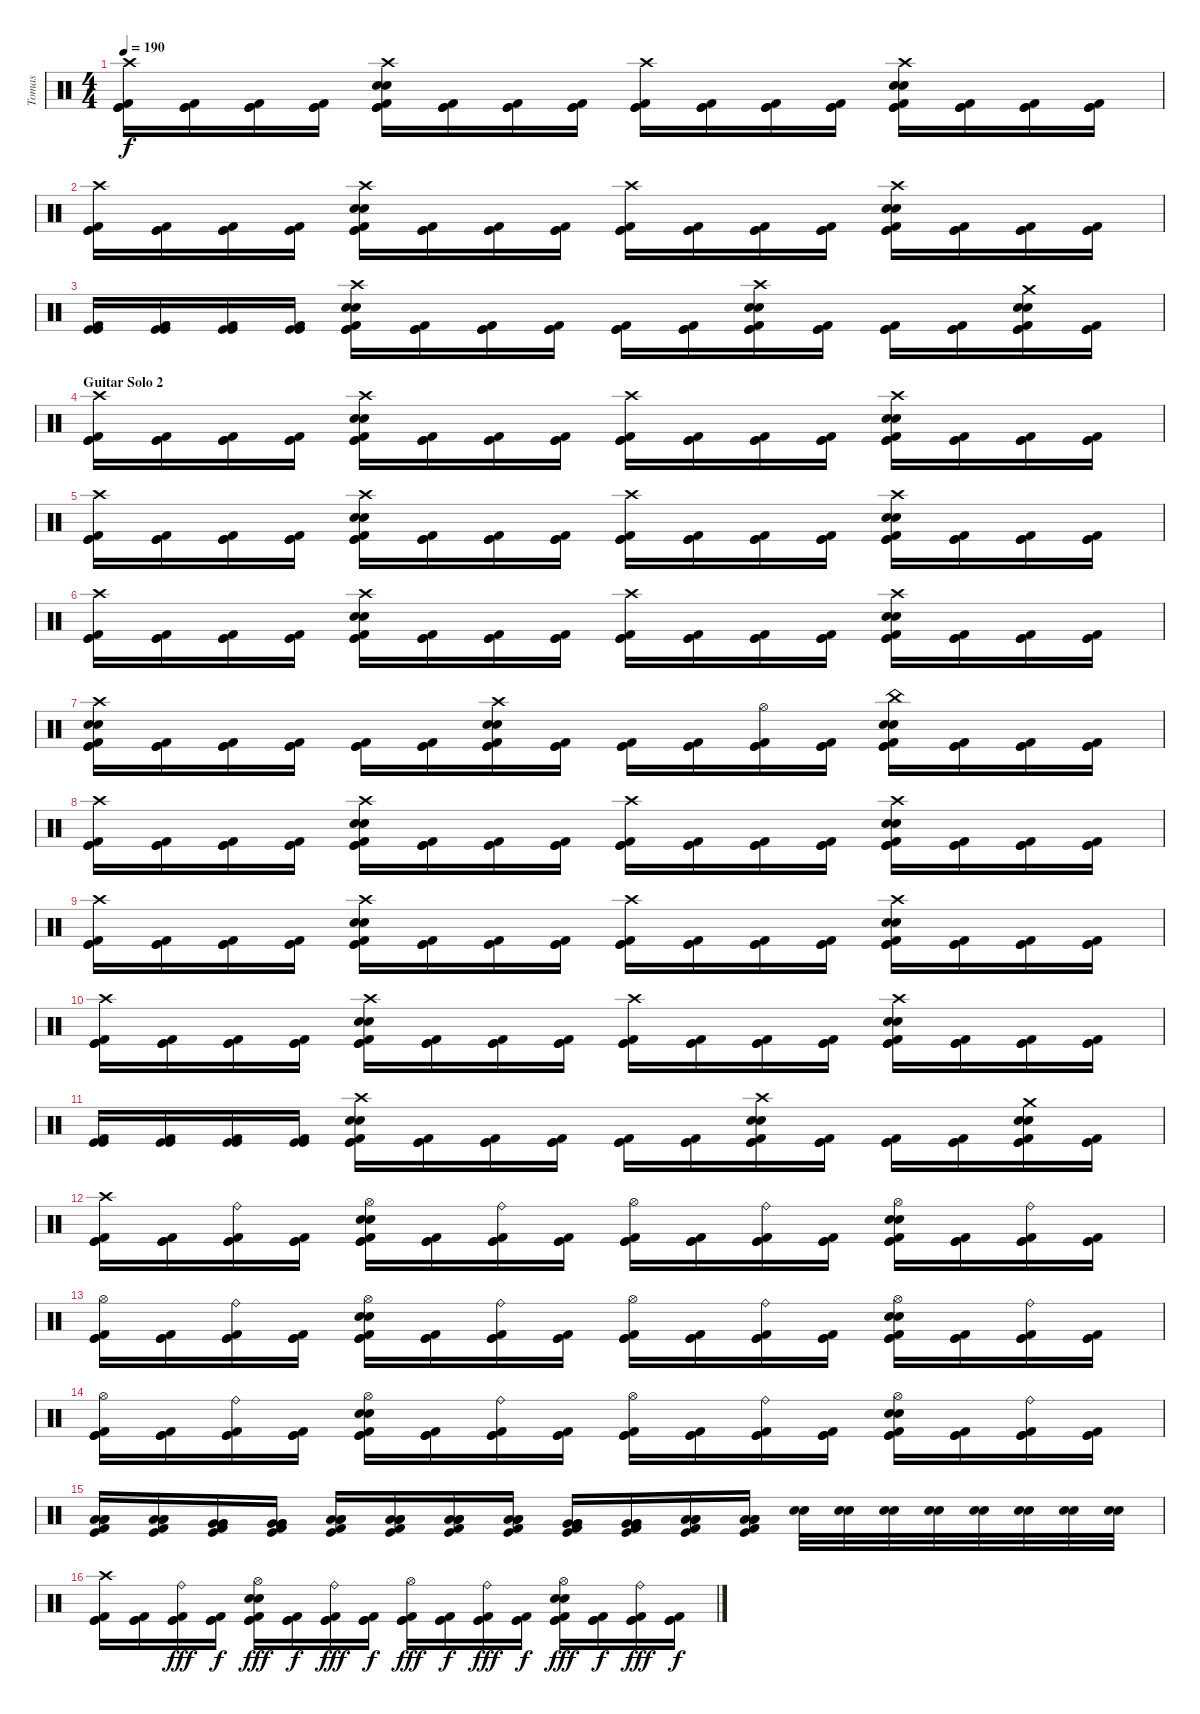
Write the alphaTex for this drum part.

\track ("Tomas" "Tomas") {instrument percussion}
\staff {score}
\articulation defaults
\ts (4 4)
\tempo 190
\clef neutral
\ks c
("Crash high (hit)" "Kick (hit)" "Kick (hit)" "Kick (hit) 2").16{dy f} ("Kick (hit)" "Kick (hit)" "Kick (hit) 2").16 ("Kick (hit)" "Kick (hit)" "Kick (hit) 2").16 ("Kick (hit)" "Kick (hit)" "Kick (hit) 2").16 ("Crash high (hit)" "Kick (hit)" "Electric Snare (hit)" "Electric Snare (hit)" "Kick (hit)" "Kick (hit) 2").16 ("Kick (hit)" "Kick (hit)" "Kick (hit) 2").16 ("Kick (hit)" "Kick (hit)" "Kick (hit) 2").16 ("Kick (hit)" "Kick (hit)" "Kick (hit) 2").16 ("Crash high (hit)" "Kick (hit)" "Kick (hit)" "Kick (hit) 2").16 ("Kick (hit)" "Kick (hit)" "Kick (hit) 2").16 ("Kick (hit)" "Kick (hit)" "Kick (hit) 2").16 ("Kick (hit)" "Kick (hit)" "Kick (hit) 2").16 ("Crash high (hit)" "Kick (hit)" "Electric Snare (hit)" "Electric Snare (hit)" "Kick (hit)" "Kick (hit) 2").16 ("Kick (hit)" "Kick (hit)" "Kick (hit) 2").16 ("Kick (hit)" "Kick (hit)" "Kick (hit) 2").16 ("Kick (hit)" "Kick (hit)" "Kick (hit) 2").16 |
("Crash high (hit)" "Kick (hit)" "Kick (hit)" "Kick (hit) 2").16 ("Kick (hit)" "Kick (hit)" "Kick (hit) 2").16 ("Kick (hit)" "Kick (hit)" "Kick (hit) 2").16 ("Kick (hit)" "Kick (hit)" "Kick (hit) 2").16 ("Crash high (hit)" "Kick (hit)" "Electric Snare (hit)" "Electric Snare (hit)" "Kick (hit)" "Kick (hit) 2").16 ("Kick (hit)" "Kick (hit)" "Kick (hit) 2").16 ("Kick (hit)" "Kick (hit)" "Kick (hit) 2").16 ("Kick (hit)" "Kick (hit)" "Kick (hit) 2").16 ("Crash high (hit)" "Kick (hit)" "Kick (hit)" "Kick (hit) 2").16 ("Kick (hit)" "Kick (hit)" "Kick (hit) 2").16 ("Kick (hit)" "Kick (hit)" "Kick (hit) 2").16 ("Kick (hit)" "Kick (hit)" "Kick (hit) 2").16 ("Crash high (hit)" "Kick (hit)" "Electric Snare (hit)" "Electric Snare (hit)" "Kick (hit)" "Kick (hit) 2").16 ("Kick (hit)" "Kick (hit)" "Kick (hit) 2").16 ("Kick (hit)" "Kick (hit)" "Kick (hit) 2").16 ("Kick (hit)" "Kick (hit)" "Kick (hit) 2").16 |
("Kick (hit)" "Kick (hit)" "Kick (hit) 2").16 ("Kick (hit)" "Kick (hit)" "Kick (hit) 2").16 ("Kick (hit)" "Kick (hit)" "Kick (hit) 2").16 ("Kick (hit)" "Kick (hit)" "Kick (hit) 2").16 ("Crash high (hit)" "Kick (hit)" "Electric Snare (hit)" "Electric Snare (hit)" "Kick (hit)" "Kick (hit) 2").16 ("Kick (hit)" "Kick (hit)" "Kick (hit) 2").16 ("Kick (hit)" "Kick (hit)" "Kick (hit) 2").16 ("Kick (hit)" "Kick (hit)" "Kick (hit) 2").16 ("Kick (hit)" "Kick (hit)" "Kick (hit) 2").16 ("Kick (hit)" "Kick (hit)" "Kick (hit) 2").16 ("Crash high (hit)" "Kick (hit)" "Electric Snare (hit)" "Electric Snare (hit)" "Kick (hit)" "Kick (hit) 2").16 ("Kick (hit)" "Kick (hit)" "Kick (hit) 2").16 ("Kick (hit)" "Kick (hit)" "Kick (hit) 2").16 ("Kick (hit)" "Kick (hit)" "Kick (hit) 2").16 ("Crash medium (hit)" "Kick (hit)" "Electric Snare (hit)" "Electric Snare (hit)" "Kick (hit)" "Kick (hit) 2").16 ("Kick (hit)" "Kick (hit)" "Kick (hit) 2").16 |
\section ("" "Guitar Solo 2")
("Crash high (hit)" "Kick (hit)" "Kick (hit)" "Kick (hit) 2").16 ("Kick (hit)" "Kick (hit)" "Kick (hit) 2").16 ("Kick (hit)" "Kick (hit)" "Kick (hit) 2").16 ("Kick (hit)" "Kick (hit)" "Kick (hit) 2").16 ("Crash high (hit)" "Kick (hit)" "Electric Snare (hit)" "Electric Snare (hit)" "Kick (hit)" "Kick (hit) 2").16 ("Kick (hit)" "Kick (hit)" "Kick (hit) 2").16 ("Kick (hit)" "Kick (hit)" "Kick (hit) 2").16 ("Kick (hit)" "Kick (hit)" "Kick (hit) 2").16 ("Crash high (hit)" "Kick (hit)" "Kick (hit)" "Kick (hit) 2").16 ("Kick (hit)" "Kick (hit)" "Kick (hit) 2").16 ("Kick (hit)" "Kick (hit)" "Kick (hit) 2").16 ("Kick (hit)" "Kick (hit)" "Kick (hit) 2").16 ("Crash high (hit)" "Kick (hit)" "Electric Snare (hit)" "Electric Snare (hit)" "Kick (hit)" "Kick (hit) 2").16 ("Kick (hit)" "Kick (hit)" "Kick (hit) 2").16 ("Kick (hit)" "Kick (hit)" "Kick (hit) 2").16 ("Kick (hit)" "Kick (hit)" "Kick (hit) 2").16 |
("Crash high (hit)" "Kick (hit)" "Kick (hit)" "Kick (hit) 2").16 ("Kick (hit)" "Kick (hit)" "Kick (hit) 2").16 ("Kick (hit)" "Kick (hit)" "Kick (hit) 2").16 ("Kick (hit)" "Kick (hit)" "Kick (hit) 2").16 ("Crash high (hit)" "Kick (hit)" "Electric Snare (hit)" "Electric Snare (hit)" "Kick (hit)" "Kick (hit) 2").16 ("Kick (hit)" "Kick (hit)" "Kick (hit) 2").16 ("Kick (hit)" "Kick (hit)" "Kick (hit) 2").16 ("Kick (hit)" "Kick (hit)" "Kick (hit) 2").16 ("Crash high (hit)" "Kick (hit)" "Kick (hit)" "Kick (hit) 2").16 ("Kick (hit)" "Kick (hit)" "Kick (hit) 2").16 ("Kick (hit)" "Kick (hit)" "Kick (hit) 2").16 ("Kick (hit)" "Kick (hit)" "Kick (hit) 2").16 ("Crash high (hit)" "Kick (hit)" "Electric Snare (hit)" "Electric Snare (hit)" "Kick (hit)" "Kick (hit) 2").16 ("Kick (hit)" "Kick (hit)" "Kick (hit) 2").16 ("Kick (hit)" "Kick (hit)" "Kick (hit) 2").16 ("Kick (hit)" "Kick (hit)" "Kick (hit) 2").16 |
("Crash high (hit)" "Kick (hit)" "Kick (hit)" "Kick (hit) 2").16 ("Kick (hit)" "Kick (hit)" "Kick (hit) 2").16 ("Kick (hit)" "Kick (hit)" "Kick (hit) 2").16 ("Kick (hit)" "Kick (hit)" "Kick (hit) 2").16 ("Crash high (hit)" "Kick (hit)" "Electric Snare (hit)" "Electric Snare (hit)" "Kick (hit)" "Kick (hit) 2").16 ("Kick (hit)" "Kick (hit)" "Kick (hit) 2").16 ("Kick (hit)" "Kick (hit)" "Kick (hit) 2").16 ("Kick (hit)" "Kick (hit)" "Kick (hit) 2").16 ("Crash high (hit)" "Kick (hit)" "Kick (hit)" "Kick (hit) 2").16 ("Kick (hit)" "Kick (hit)" "Kick (hit) 2").16 ("Kick (hit)" "Kick (hit)" "Kick (hit) 2").16 ("Kick (hit)" "Kick (hit)" "Kick (hit) 2").16 ("Crash high (hit)" "Kick (hit)" "Electric Snare (hit)" "Electric Snare (hit)" "Kick (hit)" "Kick (hit) 2").16 ("Kick (hit)" "Kick (hit)" "Kick (hit) 2").16 ("Kick (hit)" "Kick (hit)" "Kick (hit) 2").16 ("Kick (hit)" "Kick (hit)" "Kick (hit) 2").16 |
("Crash high (hit)" "Kick (hit)" "Electric Snare (hit)" "Electric Snare (hit)" "Kick (hit)" "Kick (hit) 2").16 ("Kick (hit)" "Kick (hit)" "Kick (hit) 2").16 ("Kick (hit)" "Kick (hit)" "Kick (hit) 2").16 ("Kick (hit)" "Kick (hit)" "Kick (hit) 2").16 ("Kick (hit)" "Kick (hit)" "Kick (hit) 2").16 ("Kick (hit)" "Kick (hit)" "Kick (hit) 2").16 ("Crash high (hit)" "Kick (hit)" "Electric Snare (hit)" "Electric Snare (hit)" "Kick (hit)" "Kick (hit) 2").16 ("Kick (hit)" "Kick (hit)" "Kick (hit) 2").16 ("Kick (hit)" "Kick (hit)" "Kick (hit) 2").16 ("Kick (hit)" "Kick (hit)" "Kick (hit) 2").16 ("Hi-Hat (open)" "Kick (hit)" "Kick (hit)" "Kick (hit) 2").16 ("Kick (hit)" "Kick (hit)" "Kick (hit) 2").16 ("China (hit)" "Kick (hit)" "Electric Snare (hit)" "Electric Snare (hit)" "Kick (hit)" "Kick (hit) 2").16 ("Kick (hit)" "Kick (hit)" "Kick (hit) 2").16 ("Kick (hit)" "Kick (hit)" "Kick (hit) 2").16 ("Kick (hit)" "Kick (hit)" "Kick (hit) 2").16 |
("Crash high (hit)" "Kick (hit)" "Kick (hit)" "Kick (hit) 2").16 ("Kick (hit)" "Kick (hit)" "Kick (hit) 2").16 ("Kick (hit)" "Kick (hit)" "Kick (hit) 2").16 ("Kick (hit)" "Kick (hit)" "Kick (hit) 2").16 ("Crash high (hit)" "Kick (hit)" "Electric Snare (hit)" "Electric Snare (hit)" "Kick (hit)" "Kick (hit) 2").16 ("Kick (hit)" "Kick (hit)" "Kick (hit) 2").16 ("Kick (hit)" "Kick (hit)" "Kick (hit) 2").16 ("Kick (hit)" "Kick (hit)" "Kick (hit) 2").16 ("Crash high (hit)" "Kick (hit)" "Kick (hit)" "Kick (hit) 2").16 ("Kick (hit)" "Kick (hit)" "Kick (hit) 2").16 ("Kick (hit)" "Kick (hit)" "Kick (hit) 2").16 ("Kick (hit)" "Kick (hit)" "Kick (hit) 2").16 ("Crash high (hit)" "Kick (hit)" "Electric Snare (hit)" "Electric Snare (hit)" "Kick (hit)" "Kick (hit) 2").16 ("Kick (hit)" "Kick (hit)" "Kick (hit) 2").16 ("Kick (hit)" "Kick (hit)" "Kick (hit) 2").16 ("Kick (hit)" "Kick (hit)" "Kick (hit) 2").16 |
("Crash high (hit)" "Kick (hit)" "Kick (hit)" "Kick (hit) 2").16 ("Kick (hit)" "Kick (hit)" "Kick (hit) 2").16 ("Kick (hit)" "Kick (hit)" "Kick (hit) 2").16 ("Kick (hit)" "Kick (hit)" "Kick (hit) 2").16 ("Crash high (hit)" "Kick (hit)" "Electric Snare (hit)" "Electric Snare (hit)" "Kick (hit)" "Kick (hit) 2").16 ("Kick (hit)" "Kick (hit)" "Kick (hit) 2").16 ("Kick (hit)" "Kick (hit)" "Kick (hit) 2").16 ("Kick (hit)" "Kick (hit)" "Kick (hit) 2").16 ("Crash high (hit)" "Kick (hit)" "Kick (hit)" "Kick (hit) 2").16 ("Kick (hit)" "Kick (hit)" "Kick (hit) 2").16 ("Kick (hit)" "Kick (hit)" "Kick (hit) 2").16 ("Kick (hit)" "Kick (hit)" "Kick (hit) 2").16 ("Crash high (hit)" "Kick (hit)" "Electric Snare (hit)" "Electric Snare (hit)" "Kick (hit)" "Kick (hit) 2").16 ("Kick (hit)" "Kick (hit)" "Kick (hit) 2").16 ("Kick (hit)" "Kick (hit)" "Kick (hit) 2").16 ("Kick (hit)" "Kick (hit)" "Kick (hit) 2").16 |
("Crash high (hit)" "Kick (hit)" "Kick (hit)" "Kick (hit) 2").16 ("Kick (hit)" "Kick (hit)" "Kick (hit) 2").16 ("Kick (hit)" "Kick (hit)" "Kick (hit) 2").16 ("Kick (hit)" "Kick (hit)" "Kick (hit) 2").16 ("Crash high (hit)" "Kick (hit)" "Electric Snare (hit)" "Electric Snare (hit)" "Kick (hit)" "Kick (hit) 2").16 ("Kick (hit)" "Kick (hit)" "Kick (hit) 2").16 ("Kick (hit)" "Kick (hit)" "Kick (hit) 2").16 ("Kick (hit)" "Kick (hit)" "Kick (hit) 2").16 ("Crash high (hit)" "Kick (hit)" "Kick (hit)" "Kick (hit) 2").16 ("Kick (hit)" "Kick (hit)" "Kick (hit) 2").16 ("Kick (hit)" "Kick (hit)" "Kick (hit) 2").16 ("Kick (hit)" "Kick (hit)" "Kick (hit) 2").16 ("Crash high (hit)" "Kick (hit)" "Electric Snare (hit)" "Electric Snare (hit)" "Kick (hit)" "Kick (hit) 2").16 ("Kick (hit)" "Kick (hit)" "Kick (hit) 2").16 ("Kick (hit)" "Kick (hit)" "Kick (hit) 2").16 ("Kick (hit)" "Kick (hit)" "Kick (hit) 2").16 |
("Kick (hit)" "Kick (hit)" "Kick (hit) 2").16 ("Kick (hit)" "Kick (hit)" "Kick (hit) 2").16 ("Kick (hit)" "Kick (hit)" "Kick (hit) 2").16 ("Kick (hit)" "Kick (hit)" "Kick (hit) 2").16 ("Crash high (hit)" "Kick (hit)" "Electric Snare (hit)" "Electric Snare (hit)" "Kick (hit)" "Kick (hit) 2").16 ("Kick (hit)" "Kick (hit)" "Kick (hit) 2").16 ("Kick (hit)" "Kick (hit)" "Kick (hit) 2").16 ("Kick (hit)" "Kick (hit)" "Kick (hit) 2").16 ("Kick (hit)" "Kick (hit)" "Kick (hit) 2").16 ("Kick (hit)" "Kick (hit)" "Kick (hit) 2").16 ("Crash high (hit)" "Kick (hit)" "Electric Snare (hit)" "Electric Snare (hit)" "Kick (hit)" "Kick (hit) 2").16 ("Kick (hit)" "Kick (hit)" "Kick (hit) 2").16 ("Kick (hit)" "Kick (hit)" "Kick (hit) 2").16 ("Kick (hit)" "Kick (hit)" "Kick (hit) 2").16 ("Crash medium (hit)" "Kick (hit)" "Electric Snare (hit)" "Electric Snare (hit)" "Kick (hit)" "Kick (hit) 2").16 ("Kick (hit)" "Kick (hit)" "Kick (hit) 2").16 |
("Crash high (hit)" "Kick (hit)" "Kick (hit)" "Kick (hit) 2").16 ("Kick (hit)" "Kick (hit)" "Kick (hit) 2").16 ("Ride (bell)" "Kick (hit)" "Kick (hit)" "Kick (hit) 2").16 ("Kick (hit)" "Kick (hit)" "Kick (hit) 2").16 ("Hi-Hat (open)" "Kick (hit)" "Electric Snare (hit)" "Electric Snare (hit)" "Kick (hit)" "Kick (hit) 2").16 ("Kick (hit)" "Kick (hit)" "Kick (hit) 2").16 ("Ride (bell)" "Kick (hit)" "Kick (hit)" "Kick (hit) 2").16 ("Kick (hit)" "Kick (hit)" "Kick (hit) 2").16 ("Hi-Hat (open)" "Kick (hit)" "Kick (hit)" "Kick (hit) 2").16 ("Kick (hit)" "Kick (hit)" "Kick (hit) 2").16 ("Ride (bell)" "Kick (hit)" "Kick (hit)" "Kick (hit) 2").16 ("Kick (hit)" "Kick (hit)" "Kick (hit) 2").16 ("Hi-Hat (open)" "Kick (hit)" "Electric Snare (hit)" "Electric Snare (hit)" "Kick (hit)" "Kick (hit) 2").16 ("Kick (hit)" "Kick (hit)" "Kick (hit) 2").16 ("Ride (bell)" "Kick (hit)" "Kick (hit)" "Kick (hit) 2").16 ("Kick (hit)" "Kick (hit)" "Kick (hit) 2").16 |
("Hi-Hat (open)" "Kick (hit)" "Kick (hit)" "Kick (hit) 2").16 ("Kick (hit)" "Kick (hit)" "Kick (hit) 2").16 ("Ride (bell)" "Kick (hit)" "Kick (hit)" "Kick (hit) 2").16 ("Kick (hit)" "Kick (hit)" "Kick (hit) 2").16 ("Hi-Hat (open)" "Kick (hit)" "Electric Snare (hit)" "Electric Snare (hit)" "Kick (hit)" "Kick (hit) 2").16 ("Kick (hit)" "Kick (hit)" "Kick (hit) 2").16 ("Ride (bell)" "Kick (hit)" "Kick (hit)" "Kick (hit) 2").16 ("Kick (hit)" "Kick (hit)" "Kick (hit) 2").16 ("Hi-Hat (open)" "Kick (hit)" "Kick (hit)" "Kick (hit) 2").16 ("Kick (hit)" "Kick (hit)" "Kick (hit) 2").16 ("Ride (bell)" "Kick (hit)" "Kick (hit)" "Kick (hit) 2").16 ("Kick (hit)" "Kick (hit)" "Kick (hit) 2").16 ("Hi-Hat (open)" "Kick (hit)" "Electric Snare (hit)" "Electric Snare (hit)" "Kick (hit)" "Kick (hit) 2").16 ("Kick (hit)" "Kick (hit)" "Kick (hit) 2").16 ("Ride (bell)" "Kick (hit)" "Kick (hit)" "Kick (hit) 2").16 ("Kick (hit)" "Kick (hit)" "Kick (hit) 2").16 |
("Hi-Hat (open)" "Kick (hit)" "Kick (hit)" "Kick (hit) 2").16 ("Kick (hit)" "Kick (hit)" "Kick (hit) 2").16 ("Ride (bell)" "Kick (hit)" "Kick (hit)" "Kick (hit) 2").16 ("Kick (hit)" "Kick (hit)" "Kick (hit) 2").16 ("Hi-Hat (open)" "Kick (hit)" "Electric Snare (hit)" "Electric Snare (hit)" "Kick (hit)" "Kick (hit) 2").16 ("Kick (hit)" "Kick (hit)" "Kick (hit) 2").16 ("Ride (bell)" "Kick (hit)" "Kick (hit)" "Kick (hit) 2").16 ("Kick (hit)" "Kick (hit)" "Kick (hit) 2").16 ("Hi-Hat (open)" "Kick (hit)" "Kick (hit)" "Kick (hit) 2").16 ("Kick (hit)" "Kick (hit)" "Kick (hit) 2").16 ("Ride (bell)" "Kick (hit)" "Kick (hit)" "Kick (hit) 2").16 ("Kick (hit)" "Kick (hit)" "Kick (hit) 2").16 ("Hi-Hat (open)" "Kick (hit)" "Electric Snare (hit)" "Electric Snare (hit)" "Kick (hit)" "Kick (hit) 2").16 ("Kick (hit)" "Kick (hit)" "Kick (hit) 2").16 ("Ride (bell)" "Kick (hit)" "Kick (hit)" "Kick (hit) 2").16 ("Kick (hit)" "Kick (hit)" "Kick (hit) 2").16 |
("Kick (hit)" "Kick (hit) 2" "Low Tom (hit)" "Low Tom (hit)" "Low Tom (hit)").16 ("Kick (hit)" "Kick (hit) 2" "Low Tom (hit)" "Low Tom (hit)" "Low Tom (hit)").16 ("Kick (hit)" "Kick (hit) 2" "Very Low Tom (hit)" "Very Low Tom (hit)" "Very Low Tom (hit)").16 ("Kick (hit)" "Kick (hit) 2" "Very Low Tom (hit)" "Very Low Tom (hit)" "Very Low Tom (hit)").16 ("Kick (hit)" "Kick (hit) 2" "Low Floor Tom (hit)" "Low Floor Tom (hit)" "Low Floor Tom (hit)").16 ("Kick (hit)" "Kick (hit) 2" "Low Floor Tom (hit)" "Low Floor Tom (hit)" "Low Floor Tom (hit)").16 ("Kick (hit)" "Kick (hit) 2" "Low Tom (hit)" "Low Tom (hit)" "Low Tom (hit)").16 ("Kick (hit)" "Kick (hit) 2" "Low Tom (hit)" "Low Tom (hit)" "Low Tom (hit)").16 ("Kick (hit)" "Kick (hit) 2" "Very Low Tom (hit)" "Very Low Tom (hit)" "Very Low Tom (hit)").16 ("Kick (hit)" "Kick (hit) 2" "Very Low Tom (hit)" "Very Low Tom (hit)" "Very Low Tom (hit)").16 ("Kick (hit)" "Kick (hit) 2" "Low Floor Tom (hit)" "Low Floor Tom (hit)" "Low Floor Tom (hit)").16 ("Kick (hit)" "Kick (hit) 2" "Low Floor Tom (hit)" "Low Floor Tom (hit)" "Low Floor Tom (hit)").16 ("Electric Snare (hit)" "Electric Snare (hit)").32 ("Electric Snare (hit)" "Electric Snare (hit)").32 ("Electric Snare (hit)" "Electric Snare (hit)").32 ("Electric Snare (hit)" "Electric Snare (hit)").32 ("Electric Snare (hit)" "Electric Snare (hit)").32 ("Electric Snare (hit)" "Electric Snare (hit)").32 ("Electric Snare (hit)" "Electric Snare (hit)").32 ("Electric Snare (hit)" "Electric Snare (hit)").32 |
("Crash high (hit)" "Kick (hit)" "Kick (hit)" "Kick (hit) 2").16 ("Kick (hit)" "Kick (hit)" "Kick (hit) 2").16 ("Ride (bell)" "Kick (hit)" "Kick (hit)" "Kick (hit) 2").16{dy fff} ("Kick (hit)" "Kick (hit)" "Kick (hit) 2").16{dy f} ("Hi-Hat (open)" "Kick (hit)" "Electric Snare (hit)" "Electric Snare (hit)" "Kick (hit)" "Kick (hit) 2").16{dy fff} ("Kick (hit)" "Kick (hit)" "Kick (hit) 2").16{dy f} ("Ride (bell)" "Kick (hit)" "Kick (hit)" "Kick (hit) 2").16{dy fff} ("Kick (hit)" "Kick (hit)" "Kick (hit) 2").16{dy f} ("Hi-Hat (open)" "Kick (hit)" "Kick (hit)" "Kick (hit) 2").16{dy fff} ("Kick (hit)" "Kick (hit)" "Kick (hit) 2").16{dy f} ("Ride (bell)" "Kick (hit)" "Kick (hit)" "Kick (hit) 2").16{dy fff} ("Kick (hit)" "Kick (hit)" "Kick (hit) 2").16{dy f} ("Hi-Hat (open)" "Kick (hit)" "Electric Snare (hit)" "Electric Snare (hit)" "Kick (hit)" "Kick (hit) 2").16{dy fff} ("Kick (hit)" "Kick (hit)" "Kick (hit) 2").16{dy f} ("Ride (bell)" "Kick (hit)" "Kick (hit)" "Kick (hit) 2").16{dy fff} ("Kick (hit)" "Kick (hit)" "Kick (hit) 2").16{dy f}
